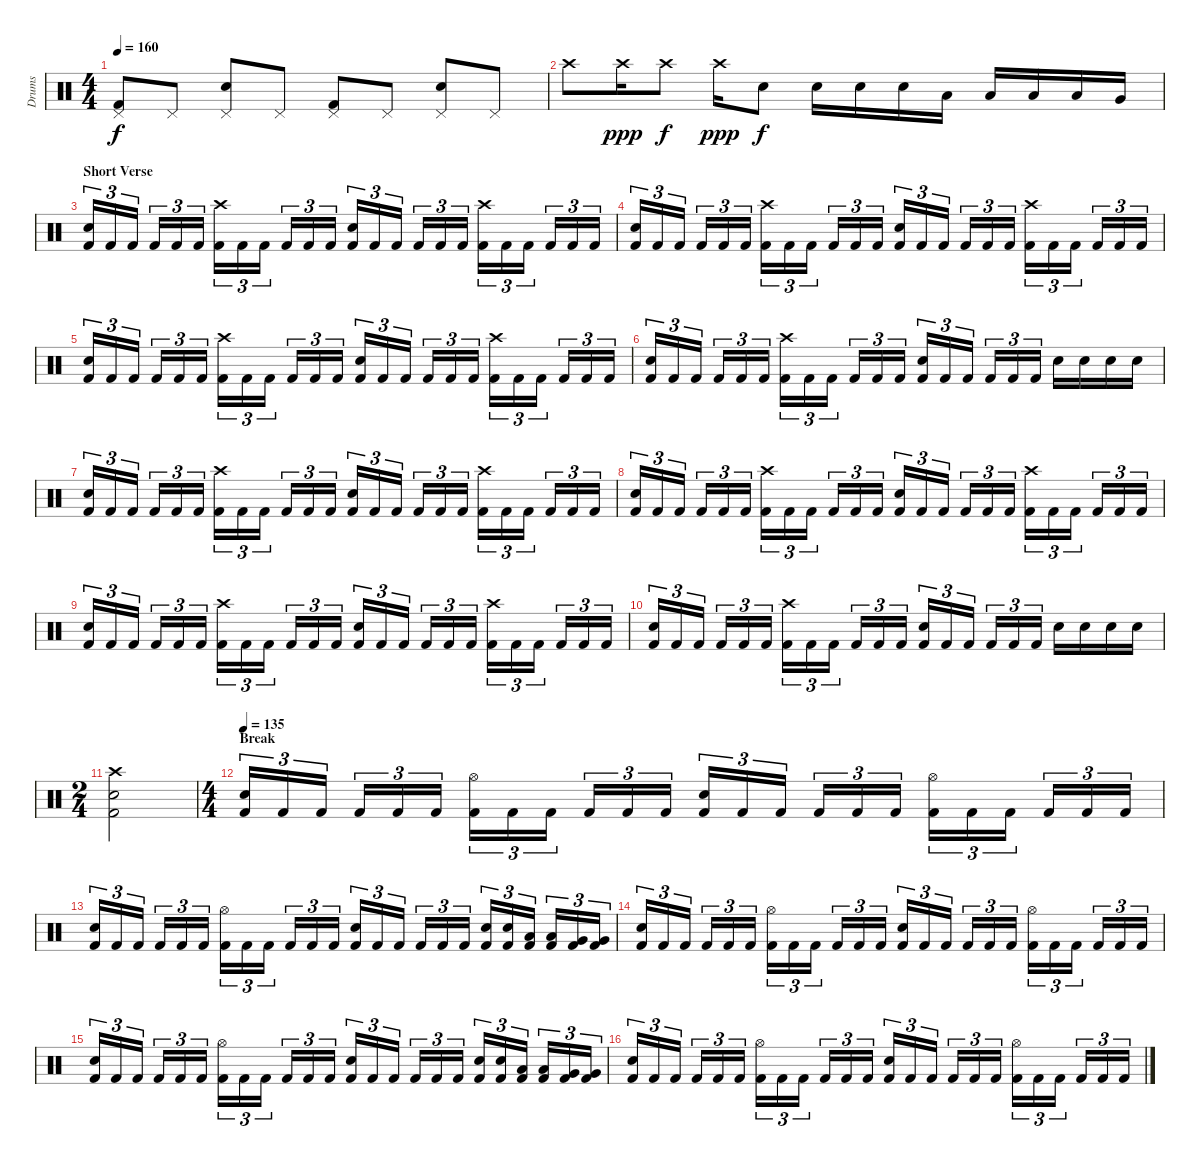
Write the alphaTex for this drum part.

\track ("Drums" "Drums") {instrument percussion}
\staff {score}
\articulation defaults
\ts (4 4)
\tempo 160
\clef neutral
\ks c
("Pedal Hi-Hat (hit)" "Kick (hit) 2").8{dy f} "Pedal Hi-Hat (hit)".8 ("Pedal Hi-Hat (hit)" "Electric Snare (hit)").8 "Pedal Hi-Hat (hit)".8 ("Pedal Hi-Hat (hit)" "Kick (hit) 2").8 "Pedal Hi-Hat (hit)".8 ("Pedal Hi-Hat (hit)" "Electric Snare (hit)").8 "Pedal Hi-Hat (hit)".8 |
"Crash high (hit)".8 "Crash high (hit)".16{dy ppp} "Crash high (hit)".8{dy f} "Crash high (hit)".16{dy ppp} "Electric Snare (hit)".8{dy f} "Electric Snare (hit)".16 "Electric Snare (hit)".16 "Electric Snare (hit)".16 "Low Tom (hit)".16 "Low Tom (hit)".16 "Low Tom (hit)".16 "Low Tom (hit)".16 "Very Low Tom (hit)".16 |
\section ("" "Short Verse")
("Kick (hit) 2" "Electric Snare (hit)").16{tu (3 2)} "Kick (hit) 2".16{tu (3 2)} "Kick (hit) 2".16{tu (3 2)} "Kick (hit) 2".16{tu (3 2)} "Kick (hit) 2".16{tu (3 2)} "Kick (hit) 2".16{tu (3 2)} ("Kick (hit) 2" "Crash high (hit)").16{tu (3 2)} "Kick (hit) 2".16{tu (3 2)} "Kick (hit) 2".16{tu (3 2)} "Kick (hit) 2".16{tu (3 2)} "Kick (hit) 2".16{tu (3 2)} "Kick (hit) 2".16{tu (3 2)} ("Kick (hit) 2" "Electric Snare (hit)").16{tu (3 2)} "Kick (hit) 2".16{tu (3 2)} "Kick (hit) 2".16{tu (3 2)} "Kick (hit) 2".16{tu (3 2)} "Kick (hit) 2".16{tu (3 2)} "Kick (hit) 2".16{tu (3 2)} ("Kick (hit) 2" "Crash high (hit)").16{tu (3 2)} "Kick (hit) 2".16{tu (3 2)} "Kick (hit) 2".16{tu (3 2)} "Kick (hit) 2".16{tu (3 2)} "Kick (hit) 2".16{tu (3 2)} "Kick (hit) 2".16{tu (3 2)} |
("Kick (hit) 2" "Electric Snare (hit)").16{tu (3 2)} "Kick (hit) 2".16{tu (3 2)} "Kick (hit) 2".16{tu (3 2)} "Kick (hit) 2".16{tu (3 2)} "Kick (hit) 2".16{tu (3 2)} "Kick (hit) 2".16{tu (3 2)} ("Kick (hit) 2" "Crash high (hit)").16{tu (3 2)} "Kick (hit) 2".16{tu (3 2)} "Kick (hit) 2".16{tu (3 2)} "Kick (hit) 2".16{tu (3 2)} "Kick (hit) 2".16{tu (3 2)} "Kick (hit) 2".16{tu (3 2)} ("Kick (hit) 2" "Electric Snare (hit)").16{tu (3 2)} "Kick (hit) 2".16{tu (3 2)} "Kick (hit) 2".16{tu (3 2)} "Kick (hit) 2".16{tu (3 2)} "Kick (hit) 2".16{tu (3 2)} "Kick (hit) 2".16{tu (3 2)} ("Kick (hit) 2" "Crash high (hit)").16{tu (3 2)} "Kick (hit) 2".16{tu (3 2)} "Kick (hit) 2".16{tu (3 2)} "Kick (hit) 2".16{tu (3 2)} "Kick (hit) 2".16{tu (3 2)} "Kick (hit) 2".16{tu (3 2)} |
("Kick (hit) 2" "Electric Snare (hit)").16{tu (3 2)} "Kick (hit) 2".16{tu (3 2)} "Kick (hit) 2".16{tu (3 2)} "Kick (hit) 2".16{tu (3 2)} "Kick (hit) 2".16{tu (3 2)} "Kick (hit) 2".16{tu (3 2)} ("Kick (hit) 2" "Crash high (hit)").16{tu (3 2)} "Kick (hit) 2".16{tu (3 2)} "Kick (hit) 2".16{tu (3 2)} "Kick (hit) 2".16{tu (3 2)} "Kick (hit) 2".16{tu (3 2)} "Kick (hit) 2".16{tu (3 2)} ("Kick (hit) 2" "Electric Snare (hit)").16{tu (3 2)} "Kick (hit) 2".16{tu (3 2)} "Kick (hit) 2".16{tu (3 2)} "Kick (hit) 2".16{tu (3 2)} "Kick (hit) 2".16{tu (3 2)} "Kick (hit) 2".16{tu (3 2)} ("Kick (hit) 2" "Crash high (hit)").16{tu (3 2)} "Kick (hit) 2".16{tu (3 2)} "Kick (hit) 2".16{tu (3 2)} "Kick (hit) 2".16{tu (3 2)} "Kick (hit) 2".16{tu (3 2)} "Kick (hit) 2".16{tu (3 2)} |
("Kick (hit) 2" "Electric Snare (hit)").16{tu (3 2)} "Kick (hit) 2".16{tu (3 2)} "Kick (hit) 2".16{tu (3 2)} "Kick (hit) 2".16{tu (3 2)} "Kick (hit) 2".16{tu (3 2)} "Kick (hit) 2".16{tu (3 2)} ("Kick (hit) 2" "Crash high (hit)").16{tu (3 2)} "Kick (hit) 2".16{tu (3 2)} "Kick (hit) 2".16{tu (3 2)} "Kick (hit) 2".16{tu (3 2)} "Kick (hit) 2".16{tu (3 2)} "Kick (hit) 2".16{tu (3 2)} ("Kick (hit) 2" "Electric Snare (hit)").16{tu (3 2)} "Kick (hit) 2".16{tu (3 2)} "Kick (hit) 2".16{tu (3 2)} "Kick (hit) 2".16{tu (3 2)} "Kick (hit) 2".16{tu (3 2)} "Kick (hit) 2".16{tu (3 2)} "Electric Snare (hit)".16 "Electric Snare (hit)".16 "Electric Snare (hit)".16 "Electric Snare (hit)".16 |
("Kick (hit) 2" "Electric Snare (hit)").16{tu (3 2)} "Kick (hit) 2".16{tu (3 2)} "Kick (hit) 2".16{tu (3 2)} "Kick (hit) 2".16{tu (3 2)} "Kick (hit) 2".16{tu (3 2)} "Kick (hit) 2".16{tu (3 2)} ("Kick (hit) 2" "Crash high (hit)").16{tu (3 2)} "Kick (hit) 2".16{tu (3 2)} "Kick (hit) 2".16{tu (3 2)} "Kick (hit) 2".16{tu (3 2)} "Kick (hit) 2".16{tu (3 2)} "Kick (hit) 2".16{tu (3 2)} ("Kick (hit) 2" "Electric Snare (hit)").16{tu (3 2)} "Kick (hit) 2".16{tu (3 2)} "Kick (hit) 2".16{tu (3 2)} "Kick (hit) 2".16{tu (3 2)} "Kick (hit) 2".16{tu (3 2)} "Kick (hit) 2".16{tu (3 2)} ("Kick (hit) 2" "Crash high (hit)").16{tu (3 2)} "Kick (hit) 2".16{tu (3 2)} "Kick (hit) 2".16{tu (3 2)} "Kick (hit) 2".16{tu (3 2)} "Kick (hit) 2".16{tu (3 2)} "Kick (hit) 2".16{tu (3 2)} |
("Kick (hit) 2" "Electric Snare (hit)").16{tu (3 2)} "Kick (hit) 2".16{tu (3 2)} "Kick (hit) 2".16{tu (3 2)} "Kick (hit) 2".16{tu (3 2)} "Kick (hit) 2".16{tu (3 2)} "Kick (hit) 2".16{tu (3 2)} ("Kick (hit) 2" "Crash high (hit)").16{tu (3 2)} "Kick (hit) 2".16{tu (3 2)} "Kick (hit) 2".16{tu (3 2)} "Kick (hit) 2".16{tu (3 2)} "Kick (hit) 2".16{tu (3 2)} "Kick (hit) 2".16{tu (3 2)} ("Kick (hit) 2" "Electric Snare (hit)").16{tu (3 2)} "Kick (hit) 2".16{tu (3 2)} "Kick (hit) 2".16{tu (3 2)} "Kick (hit) 2".16{tu (3 2)} "Kick (hit) 2".16{tu (3 2)} "Kick (hit) 2".16{tu (3 2)} ("Kick (hit) 2" "Crash high (hit)").16{tu (3 2)} "Kick (hit) 2".16{tu (3 2)} "Kick (hit) 2".16{tu (3 2)} "Kick (hit) 2".16{tu (3 2)} "Kick (hit) 2".16{tu (3 2)} "Kick (hit) 2".16{tu (3 2)} |
("Kick (hit) 2" "Electric Snare (hit)").16{tu (3 2)} "Kick (hit) 2".16{tu (3 2)} "Kick (hit) 2".16{tu (3 2)} "Kick (hit) 2".16{tu (3 2)} "Kick (hit) 2".16{tu (3 2)} "Kick (hit) 2".16{tu (3 2)} ("Kick (hit) 2" "Crash high (hit)").16{tu (3 2)} "Kick (hit) 2".16{tu (3 2)} "Kick (hit) 2".16{tu (3 2)} "Kick (hit) 2".16{tu (3 2)} "Kick (hit) 2".16{tu (3 2)} "Kick (hit) 2".16{tu (3 2)} ("Kick (hit) 2" "Electric Snare (hit)").16{tu (3 2)} "Kick (hit) 2".16{tu (3 2)} "Kick (hit) 2".16{tu (3 2)} "Kick (hit) 2".16{tu (3 2)} "Kick (hit) 2".16{tu (3 2)} "Kick (hit) 2".16{tu (3 2)} ("Kick (hit) 2" "Crash high (hit)").16{tu (3 2)} "Kick (hit) 2".16{tu (3 2)} "Kick (hit) 2".16{tu (3 2)} "Kick (hit) 2".16{tu (3 2)} "Kick (hit) 2".16{tu (3 2)} "Kick (hit) 2".16{tu (3 2)} |
("Kick (hit) 2" "Electric Snare (hit)").16{tu (3 2)} "Kick (hit) 2".16{tu (3 2)} "Kick (hit) 2".16{tu (3 2)} "Kick (hit) 2".16{tu (3 2)} "Kick (hit) 2".16{tu (3 2)} "Kick (hit) 2".16{tu (3 2)} ("Kick (hit) 2" "Crash high (hit)").16{tu (3 2)} "Kick (hit) 2".16{tu (3 2)} "Kick (hit) 2".16{tu (3 2)} "Kick (hit) 2".16{tu (3 2)} "Kick (hit) 2".16{tu (3 2)} "Kick (hit) 2".16{tu (3 2)} ("Kick (hit) 2" "Electric Snare (hit)").16{tu (3 2)} "Kick (hit) 2".16{tu (3 2)} "Kick (hit) 2".16{tu (3 2)} "Kick (hit) 2".16{tu (3 2)} "Kick (hit) 2".16{tu (3 2)} "Kick (hit) 2".16{tu (3 2)} "Electric Snare (hit)".16 "Electric Snare (hit)".16 "Electric Snare (hit)".16 "Electric Snare (hit)".16 |
\ts (2 4)
("Crash high (hit)" "Electric Snare (hit)" "Kick (hit) 2").2 |
\ts (4 4)
\section ("" "Break")
\tempo 135
("Kick (hit) 2" "Electric Snare (hit)").16{tu (3 2)} "Kick (hit) 2".16{tu (3 2)} "Kick (hit) 2".16{tu (3 2)} "Kick (hit) 2".16{tu (3 2)} "Kick (hit) 2".16{tu (3 2)} "Kick (hit) 2".16{tu (3 2)} ("Kick (hit) 2" "Hi-Hat (open)").16{tu (3 2)} "Kick (hit) 2".16{tu (3 2)} "Kick (hit) 2".16{tu (3 2)} "Kick (hit) 2".16{tu (3 2)} "Kick (hit) 2".16{tu (3 2)} "Kick (hit) 2".16{tu (3 2)} ("Kick (hit) 2" "Electric Snare (hit)").16{tu (3 2)} "Kick (hit) 2".16{tu (3 2)} "Kick (hit) 2".16{tu (3 2)} "Kick (hit) 2".16{tu (3 2)} "Kick (hit) 2".16{tu (3 2)} "Kick (hit) 2".16{tu (3 2)} ("Kick (hit) 2" "Hi-Hat (open)").16{tu (3 2)} "Kick (hit) 2".16{tu (3 2)} "Kick (hit) 2".16{tu (3 2)} "Kick (hit) 2".16{tu (3 2)} "Kick (hit) 2".16{tu (3 2)} "Kick (hit) 2".16{tu (3 2)} |
("Kick (hit) 2" "Electric Snare (hit)").16{tu (3 2)} "Kick (hit) 2".16{tu (3 2)} "Kick (hit) 2".16{tu (3 2)} "Kick (hit) 2".16{tu (3 2)} "Kick (hit) 2".16{tu (3 2)} "Kick (hit) 2".16{tu (3 2)} ("Kick (hit) 2" "Hi-Hat (open)").16{tu (3 2)} "Kick (hit) 2".16{tu (3 2)} "Kick (hit) 2".16{tu (3 2)} "Kick (hit) 2".16{tu (3 2)} "Kick (hit) 2".16{tu (3 2)} "Kick (hit) 2".16{tu (3 2)} ("Kick (hit) 2" "Electric Snare (hit)").16{tu (3 2)} "Kick (hit) 2".16{tu (3 2)} "Kick (hit) 2".16{tu (3 2)} "Kick (hit) 2".16{tu (3 2)} "Kick (hit) 2".16{tu (3 2)} "Kick (hit) 2".16{tu (3 2)} ("Kick (hit) 2" "Electric Snare (hit)").16{tu (3 2)} ("Kick (hit) 2" "Electric Snare (hit)").16{tu (3 2)} ("Kick (hit) 2" "Low Tom (hit)").16{tu (3 2)} ("Kick (hit) 2" "Low Tom (hit)").16{tu (3 2)} ("Kick (hit) 2" "Very Low Tom (hit)").16{tu (3 2)} ("Kick (hit) 2" "Very Low Tom (hit)").16{tu (3 2)} |
("Kick (hit) 2" "Electric Snare (hit)").16{tu (3 2)} "Kick (hit) 2".16{tu (3 2)} "Kick (hit) 2".16{tu (3 2)} "Kick (hit) 2".16{tu (3 2)} "Kick (hit) 2".16{tu (3 2)} "Kick (hit) 2".16{tu (3 2)} ("Kick (hit) 2" "Hi-Hat (open)").16{tu (3 2)} "Kick (hit) 2".16{tu (3 2)} "Kick (hit) 2".16{tu (3 2)} "Kick (hit) 2".16{tu (3 2)} "Kick (hit) 2".16{tu (3 2)} "Kick (hit) 2".16{tu (3 2)} ("Kick (hit) 2" "Electric Snare (hit)").16{tu (3 2)} "Kick (hit) 2".16{tu (3 2)} "Kick (hit) 2".16{tu (3 2)} "Kick (hit) 2".16{tu (3 2)} "Kick (hit) 2".16{tu (3 2)} "Kick (hit) 2".16{tu (3 2)} ("Kick (hit) 2" "Hi-Hat (open)").16{tu (3 2)} "Kick (hit) 2".16{tu (3 2)} "Kick (hit) 2".16{tu (3 2)} "Kick (hit) 2".16{tu (3 2)} "Kick (hit) 2".16{tu (3 2)} "Kick (hit) 2".16{tu (3 2)} |
("Kick (hit) 2" "Electric Snare (hit)").16{tu (3 2)} "Kick (hit) 2".16{tu (3 2)} "Kick (hit) 2".16{tu (3 2)} "Kick (hit) 2".16{tu (3 2)} "Kick (hit) 2".16{tu (3 2)} "Kick (hit) 2".16{tu (3 2)} ("Kick (hit) 2" "Hi-Hat (open)").16{tu (3 2)} "Kick (hit) 2".16{tu (3 2)} "Kick (hit) 2".16{tu (3 2)} "Kick (hit) 2".16{tu (3 2)} "Kick (hit) 2".16{tu (3 2)} "Kick (hit) 2".16{tu (3 2)} ("Kick (hit) 2" "Electric Snare (hit)").16{tu (3 2)} "Kick (hit) 2".16{tu (3 2)} "Kick (hit) 2".16{tu (3 2)} "Kick (hit) 2".16{tu (3 2)} "Kick (hit) 2".16{tu (3 2)} "Kick (hit) 2".16{tu (3 2)} ("Kick (hit) 2" "Electric Snare (hit)").16{tu (3 2)} ("Kick (hit) 2" "Electric Snare (hit)").16{tu (3 2)} ("Kick (hit) 2" "Low Tom (hit)").16{tu (3 2)} ("Kick (hit) 2" "Low Tom (hit)").16{tu (3 2)} ("Kick (hit) 2" "Very Low Tom (hit)").16{tu (3 2)} ("Kick (hit) 2" "Very Low Tom (hit)").16{tu (3 2)} |
("Kick (hit) 2" "Electric Snare (hit)").16{tu (3 2)} "Kick (hit) 2".16{tu (3 2)} "Kick (hit) 2".16{tu (3 2)} "Kick (hit) 2".16{tu (3 2)} "Kick (hit) 2".16{tu (3 2)} "Kick (hit) 2".16{tu (3 2)} ("Kick (hit) 2" "Hi-Hat (open)").16{tu (3 2)} "Kick (hit) 2".16{tu (3 2)} "Kick (hit) 2".16{tu (3 2)} "Kick (hit) 2".16{tu (3 2)} "Kick (hit) 2".16{tu (3 2)} "Kick (hit) 2".16{tu (3 2)} ("Kick (hit) 2" "Electric Snare (hit)").16{tu (3 2)} "Kick (hit) 2".16{tu (3 2)} "Kick (hit) 2".16{tu (3 2)} "Kick (hit) 2".16{tu (3 2)} "Kick (hit) 2".16{tu (3 2)} "Kick (hit) 2".16{tu (3 2)} ("Kick (hit) 2" "Hi-Hat (open)").16{tu (3 2)} "Kick (hit) 2".16{tu (3 2)} "Kick (hit) 2".16{tu (3 2)} "Kick (hit) 2".16{tu (3 2)} "Kick (hit) 2".16{tu (3 2)} "Kick (hit) 2".16{tu (3 2)}
